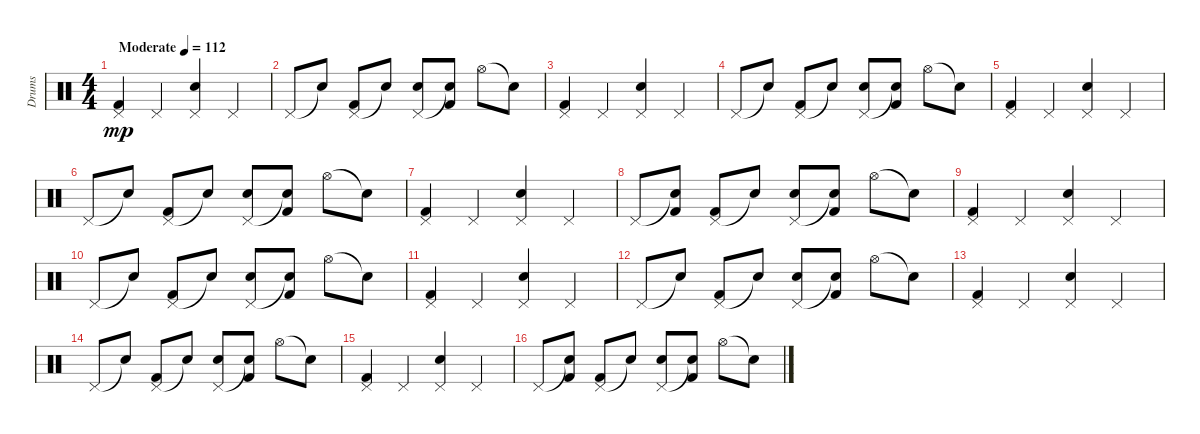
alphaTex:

\track ("Drums" "Drums") {instrument percussion}
\staff {score}
\articulation defaults
\ts (4 4)
\tempo (112 "Moderate")
\clef neutral
\ks c
("Pedal Hi-Hat (hit)" "Kick (hit) 2").4{dy mp} "Pedal Hi-Hat (hit)".4 ("Pedal Hi-Hat (hit)" "Electric Snare (hit)").4 "Pedal Hi-Hat (hit)".4 |
"Pedal Hi-Hat (hit)".8 "Snare (hit)"{t}.8 ("Pedal Hi-Hat (hit)" "Kick (hit) 2").8 "Snare (hit)"{t}.8 ("Pedal Hi-Hat (hit)" "Electric Snare (hit)").8 ("Snare (hit)"{t} "Kick (hit) 2").8 "Hi-Hat (open)".8 "Snare (hit)"{t}.8 |
("Pedal Hi-Hat (hit)" "Kick (hit) 2").4 "Pedal Hi-Hat (hit)".4 ("Pedal Hi-Hat (hit)" "Electric Snare (hit)").4 "Pedal Hi-Hat (hit)".4 |
"Pedal Hi-Hat (hit)".8 "Snare (hit)"{t}.8 ("Pedal Hi-Hat (hit)" "Kick (hit) 2").8 "Snare (hit)"{t}.8 ("Pedal Hi-Hat (hit)" "Electric Snare (hit)").8 ("Snare (hit)"{t} "Kick (hit) 2").8 "Hi-Hat (open)".8 "Snare (hit)"{t}.8 |
("Pedal Hi-Hat (hit)" "Kick (hit) 2").4 "Pedal Hi-Hat (hit)".4 ("Pedal Hi-Hat (hit)" "Electric Snare (hit)").4 "Pedal Hi-Hat (hit)".4 |
"Pedal Hi-Hat (hit)".8 "Snare (hit)"{t}.8 ("Pedal Hi-Hat (hit)" "Kick (hit) 2").8 "Snare (hit)"{t}.8 ("Pedal Hi-Hat (hit)" "Electric Snare (hit)").8 ("Snare (hit)"{t} "Kick (hit) 2").8 "Hi-Hat (open)".8 "Snare (hit)"{t}.8 |
("Pedal Hi-Hat (hit)" "Kick (hit) 2").4 "Pedal Hi-Hat (hit)".4 ("Pedal Hi-Hat (hit)" "Electric Snare (hit)").4 "Pedal Hi-Hat (hit)".4 |
"Pedal Hi-Hat (hit)".8 ("Snare (hit)"{t} "Kick (hit) 2").8 ("Pedal Hi-Hat (hit)" "Kick (hit) 2").8 "Snare (hit)"{t}.8 ("Pedal Hi-Hat (hit)" "Electric Snare (hit)").8 ("Snare (hit)"{t} "Kick (hit) 2").8 "Hi-Hat (open)".8 "Snare (hit)"{t}.8 |
("Pedal Hi-Hat (hit)" "Kick (hit) 2").4 "Pedal Hi-Hat (hit)".4 ("Pedal Hi-Hat (hit)" "Electric Snare (hit)").4 "Pedal Hi-Hat (hit)".4 |
"Pedal Hi-Hat (hit)".8 "Snare (hit)"{t}.8 ("Pedal Hi-Hat (hit)" "Kick (hit) 2").8 "Snare (hit)"{t}.8 ("Pedal Hi-Hat (hit)" "Electric Snare (hit)").8 ("Snare (hit)"{t} "Kick (hit) 2").8 "Hi-Hat (open)".8 "Snare (hit)"{t}.8 |
("Pedal Hi-Hat (hit)" "Kick (hit) 2").4 "Pedal Hi-Hat (hit)".4 ("Pedal Hi-Hat (hit)" "Electric Snare (hit)").4 "Pedal Hi-Hat (hit)".4 |
"Pedal Hi-Hat (hit)".8 "Snare (hit)"{t}.8 ("Pedal Hi-Hat (hit)" "Kick (hit) 2").8 "Snare (hit)"{t}.8 ("Pedal Hi-Hat (hit)" "Electric Snare (hit)").8 ("Snare (hit)"{t} "Kick (hit) 2").8 "Hi-Hat (open)".8 "Snare (hit)"{t}.8 |
("Pedal Hi-Hat (hit)" "Kick (hit) 2").4 "Pedal Hi-Hat (hit)".4 ("Pedal Hi-Hat (hit)" "Electric Snare (hit)").4 "Pedal Hi-Hat (hit)".4 |
"Pedal Hi-Hat (hit)".8 "Snare (hit)"{t}.8 ("Pedal Hi-Hat (hit)" "Kick (hit) 2").8 "Snare (hit)"{t}.8 ("Pedal Hi-Hat (hit)" "Electric Snare (hit)").8 ("Snare (hit)"{t} "Kick (hit) 2").8 "Hi-Hat (open)".8 "Snare (hit)"{t}.8 |
("Pedal Hi-Hat (hit)" "Kick (hit) 2").4 "Pedal Hi-Hat (hit)".4 ("Pedal Hi-Hat (hit)" "Electric Snare (hit)").4 "Pedal Hi-Hat (hit)".4 |
"Pedal Hi-Hat (hit)".8 ("Snare (hit)"{t} "Kick (hit) 2").8 ("Pedal Hi-Hat (hit)" "Kick (hit) 2").8 "Snare (hit)"{t}.8 ("Pedal Hi-Hat (hit)" "Electric Snare (hit)").8 ("Snare (hit)"{t} "Kick (hit) 2").8 "Hi-Hat (open)".8 "Snare (hit)"{t}.8
